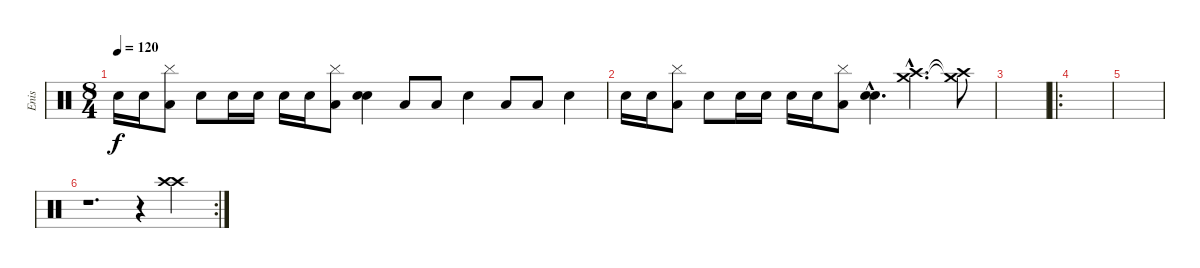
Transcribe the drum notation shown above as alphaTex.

\track ("Enis" "Enis") {instrument percussion}
\staff {score}
\articulation defaults
\ts (8 4)
\tempo 120
\clef neutral
\ks c "Snare (hit) 2".16{dy f} "Snare (hit) 2".16
("Low Floor Tom (hit)" "Cymbal (hit)").8 "Snare (hit) 2".8 "Snare (hit) 2".16 "Snare (hit) 2".16 "Snare (hit) 2".16 "Snare (hit) 2".16 ("Low Floor Tom (hit)" "Cymbal (hit)").8 ("Electric Snare (hit)" "Snare (hit) 2").4 "Low Floor Tom (hit)".8 "Low Floor Tom (hit)".8 "Snare (hit) 2".4 "Low Floor Tom (hit)".8 "Low Floor Tom (hit)".8 "Electric Snare (hit)".4 |
"Snare (hit) 2".16 "Snare (hit) 2".16 ("Low Floor Tom (hit)" "Cymbal (hit)").8 "Snare (hit) 2".8 "Snare (hit) 2".16 "Snare (hit) 2".16 "Snare (hit) 2".16 "Snare (hit) 2".16 ("Low Floor Tom (hit)" "Cymbal (hit)").8 ("Electric Snare (hit)"{hac} "Snare (hit) 2"{hac}).4{d} ("Crash medium (hit)"{hac} "Crash high (hit)"{hac}).2{d} ("Crash medium (hit)"{t} "Crash high (hit)"{t}).8 |
|
\ro
|
|
\rc 2
r.1{d} r.4 ("Crash high (hit)" "Crash high (hit)").4
